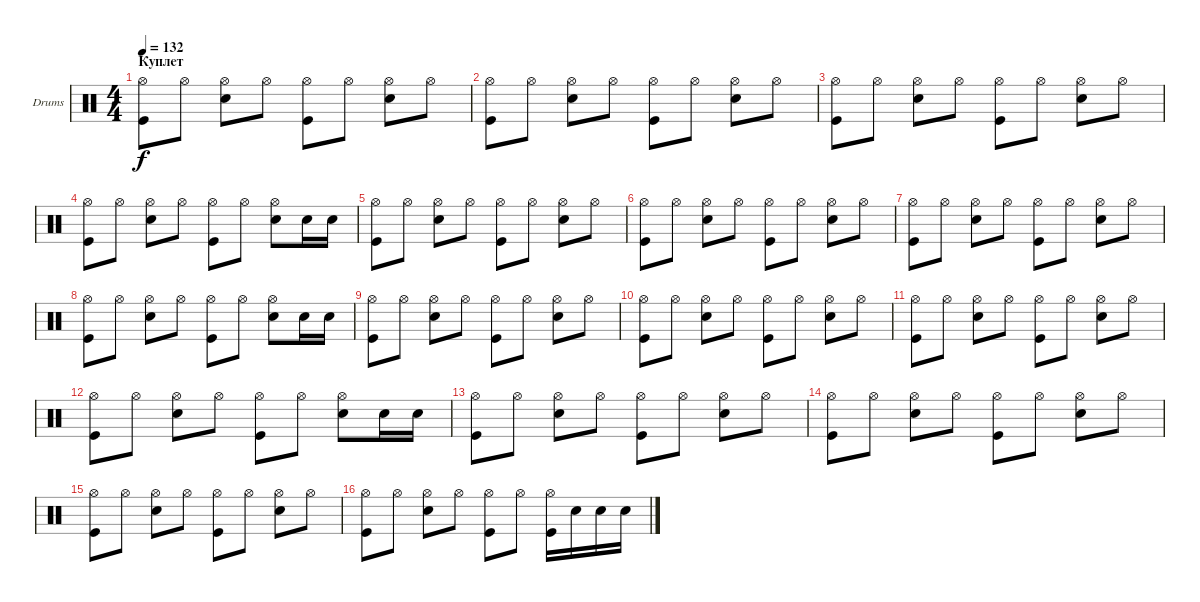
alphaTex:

\bracketExtendMode groupsimilarinstruments
\firstSystemTrackNameOrientation horizontal
\otherSystemsTrackNameOrientation horizontal
\track ("Александр Львов" "Drums") {instrument percussion}
\staff {score}
\articulation defaults
\ts (4 4)
\section ("" "Куплет")
\tempo 132
\clef neutral
\ks c
("Hi-Hat (open)" "Kick (hit)").8{dy f} "Hi-Hat (open)".8 ("Hi-Hat (open)" "Snare (hit) 2").8 "Hi-Hat (open)".8 ("Hi-Hat (open)" "Kick (hit)").8 "Hi-Hat (open)".8 ("Hi-Hat (open)" "Snare (hit) 2").8 "Hi-Hat (open)".8 |
("Hi-Hat (open)" "Kick (hit)").8 "Hi-Hat (open)".8 ("Hi-Hat (open)" "Snare (hit) 2").8 "Hi-Hat (open)".8 ("Hi-Hat (open)" "Kick (hit)").8 "Hi-Hat (open)".8 ("Hi-Hat (open)" "Snare (hit) 2").8 "Hi-Hat (open)".8 |
("Hi-Hat (open)" "Kick (hit)").8 "Hi-Hat (open)".8 ("Hi-Hat (open)" "Snare (hit) 2").8 "Hi-Hat (open)".8 ("Hi-Hat (open)" "Kick (hit)").8 "Hi-Hat (open)".8 ("Hi-Hat (open)" "Snare (hit) 2").8 "Hi-Hat (open)".8 |
("Hi-Hat (open)" "Kick (hit)").8 "Hi-Hat (open)".8 ("Hi-Hat (open)" "Snare (hit) 2").8 "Hi-Hat (open)".8 ("Hi-Hat (open)" "Kick (hit)").8 "Hi-Hat (open)".8 ("Hi-Hat (open)" "Snare (hit) 2").8 "Snare (hit) 2".16 "Snare (hit) 2".16 |
("Hi-Hat (open)" "Kick (hit)").8 "Hi-Hat (open)".8 ("Hi-Hat (open)" "Snare (hit) 2").8 "Hi-Hat (open)".8 ("Hi-Hat (open)" "Kick (hit)").8 "Hi-Hat (open)".8 ("Hi-Hat (open)" "Snare (hit) 2").8 "Hi-Hat (open)".8 |
("Hi-Hat (open)" "Kick (hit)").8 "Hi-Hat (open)".8 ("Hi-Hat (open)" "Snare (hit) 2").8 "Hi-Hat (open)".8 ("Hi-Hat (open)" "Kick (hit)").8 "Hi-Hat (open)".8 ("Hi-Hat (open)" "Snare (hit) 2").8 "Hi-Hat (open)".8 |
("Hi-Hat (open)" "Kick (hit)").8 "Hi-Hat (open)".8 ("Hi-Hat (open)" "Snare (hit) 2").8 "Hi-Hat (open)".8 ("Hi-Hat (open)" "Kick (hit)").8 "Hi-Hat (open)".8 ("Hi-Hat (open)" "Snare (hit) 2").8 "Hi-Hat (open)".8 |
("Hi-Hat (open)" "Kick (hit)").8 "Hi-Hat (open)".8 ("Hi-Hat (open)" "Snare (hit) 2").8 "Hi-Hat (open)".8 ("Hi-Hat (open)" "Kick (hit)").8 "Hi-Hat (open)".8 ("Hi-Hat (open)" "Snare (hit) 2").8 "Snare (hit) 2".16 "Snare (hit) 2".16 |
("Hi-Hat (open)" "Kick (hit)").8 "Hi-Hat (open)".8 ("Hi-Hat (open)" "Snare (hit) 2").8 "Hi-Hat (open)".8 ("Hi-Hat (open)" "Kick (hit)").8 "Hi-Hat (open)".8 ("Hi-Hat (open)" "Snare (hit) 2").8 "Hi-Hat (open)".8 |
("Hi-Hat (open)" "Kick (hit)").8 "Hi-Hat (open)".8 ("Hi-Hat (open)" "Snare (hit) 2").8 "Hi-Hat (open)".8 ("Hi-Hat (open)" "Kick (hit)").8 "Hi-Hat (open)".8 ("Hi-Hat (open)" "Snare (hit) 2").8 "Hi-Hat (open)".8 |
("Hi-Hat (open)" "Kick (hit)").8 "Hi-Hat (open)".8 ("Hi-Hat (open)" "Snare (hit) 2").8 "Hi-Hat (open)".8 ("Hi-Hat (open)" "Kick (hit)").8 "Hi-Hat (open)".8 ("Hi-Hat (open)" "Snare (hit) 2").8 "Hi-Hat (open)".8 |
("Hi-Hat (open)" "Kick (hit)").8 "Hi-Hat (open)".8 ("Hi-Hat (open)" "Snare (hit) 2").8 "Hi-Hat (open)".8 ("Hi-Hat (open)" "Kick (hit)").8 "Hi-Hat (open)".8 ("Hi-Hat (open)" "Snare (hit) 2").8 "Snare (hit) 2".16 "Snare (hit) 2".16 |
("Hi-Hat (open)" "Kick (hit)").8 "Hi-Hat (open)".8 ("Hi-Hat (open)" "Snare (hit) 2").8 "Hi-Hat (open)".8 ("Hi-Hat (open)" "Kick (hit)").8 "Hi-Hat (open)".8 ("Hi-Hat (open)" "Snare (hit) 2").8 "Hi-Hat (open)".8 |
("Hi-Hat (open)" "Kick (hit)").8 "Hi-Hat (open)".8 ("Hi-Hat (open)" "Snare (hit) 2").8 "Hi-Hat (open)".8 ("Hi-Hat (open)" "Kick (hit)").8 "Hi-Hat (open)".8 ("Hi-Hat (open)" "Snare (hit) 2").8 "Hi-Hat (open)".8 |
("Hi-Hat (open)" "Kick (hit)").8 "Hi-Hat (open)".8 ("Hi-Hat (open)" "Snare (hit) 2").8 "Hi-Hat (open)".8 ("Hi-Hat (open)" "Kick (hit)").8 "Hi-Hat (open)".8 ("Hi-Hat (open)" "Snare (hit) 2").8 "Hi-Hat (open)".8 |
("Hi-Hat (open)" "Kick (hit)").8 "Hi-Hat (open)".8 ("Hi-Hat (open)" "Snare (hit) 2").8 "Hi-Hat (open)".8 ("Hi-Hat (open)" "Kick (hit)").8 "Hi-Hat (open)".8 ("Hi-Hat (open)" "Kick (hit)").16 "Snare (hit) 2".16 "Snare (hit) 2".16 "Snare (hit) 2".16
